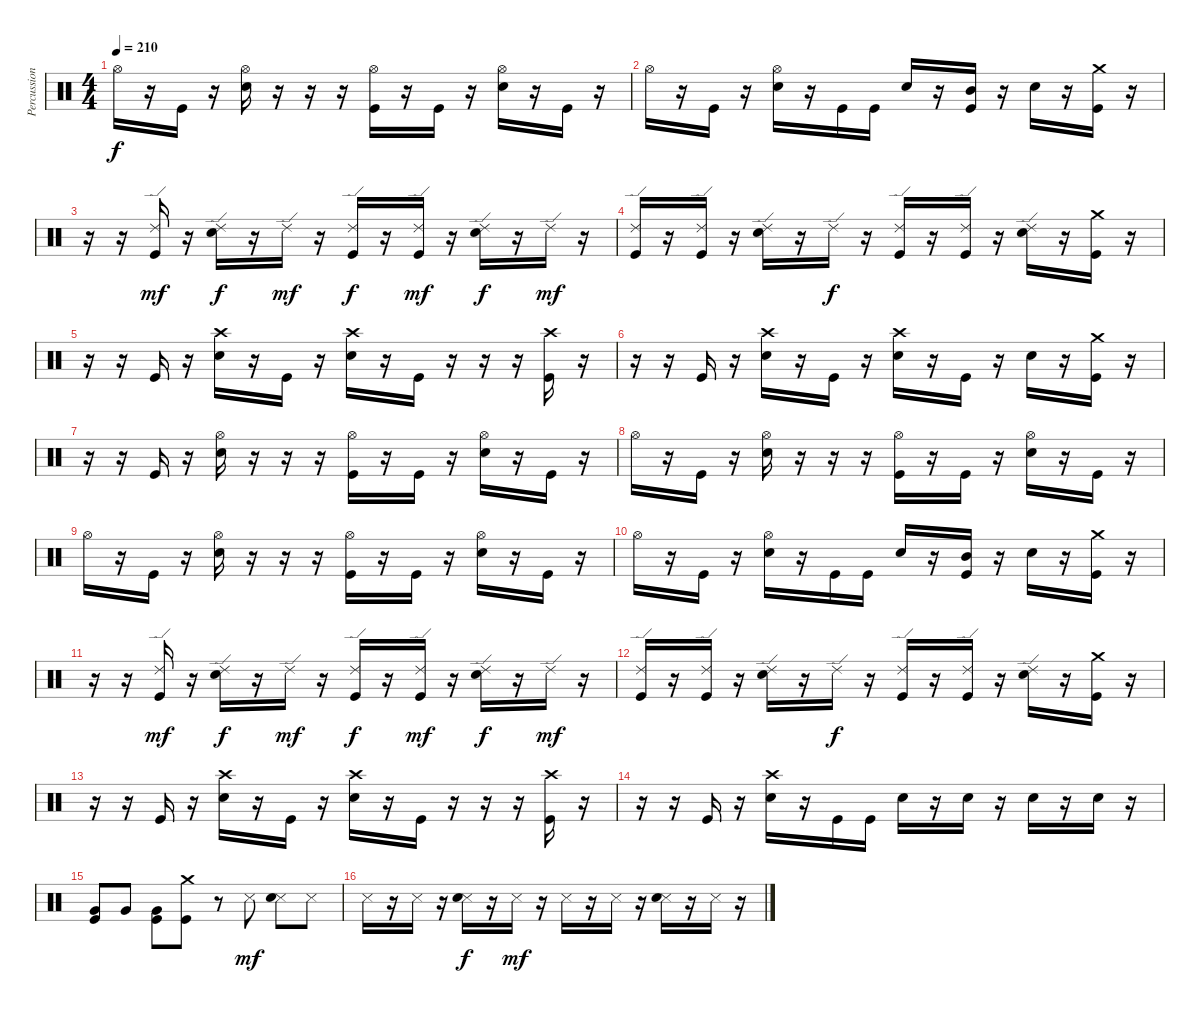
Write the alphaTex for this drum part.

\track ("Percussion" "Percussion") {instrument percussion}
\staff {score}
\articulation defaults
\ts (4 4)
\tempo 210
\clef neutral
\ks c "Hi-Hat (open)".16{dy f}
r.16 "Kick (hit)".16 r.16 ("Hi-Hat (open)" "Electric Snare (hit)").16 r.16 r.16 r.16 ("Kick (hit)" "Hi-Hat (open)").16 r.16 "Kick (hit)".16 r.16 ("Electric Snare (hit)" "Hi-Hat (open)").16 r.16 "Kick (hit)".16 r.16 |
"Hi-Hat (open)".16 r.16 "Kick (hit)".16 r.16 ("Hi-Hat (open)" "Electric Snare (hit)").16 r.16 "Kick (hit)".16 "Kick (hit)".16 "Electric Snare (hit)".16 r.16 ("Kick (hit)" "Mid Tom (hit)").16 r.16 "Electric Snare (hit)".16 r.16 ("Kick (hit)" "Crash medium (hit)").16 r.16 |
r.16 r.16 ("Ride (edge) 2" "Kick (hit)").16{dy mf} r.16 ("Ride (edge) 2" "Electric Snare (hit)").16{dy f} r.16 "Ride (edge) 2".16{dy mf} r.16 ("Ride (edge) 2" "Kick (hit)").16{dy f} r.16 ("Ride (edge) 2" "Kick (hit)").16{dy mf} r.16 ("Ride (edge) 2" "Electric Snare (hit)").16{dy f} r.16 "Ride (edge) 2".16{dy mf} r.16 |
("Ride (edge) 2" "Kick (hit)").16 r.16 ("Ride (edge) 2" "Kick (hit)").16 r.16 ("Ride (edge) 2" "Electric Snare (hit)").16 r.16 "Ride (edge) 2".16{dy f} r.16 ("Ride (edge) 2" "Kick (hit)").16 r.16 ("Ride (edge) 2" "Kick (hit)").16 r.16 ("Ride (edge) 2" "Electric Snare (hit)").16 r.16 ("Crash medium (hit)" "Kick (hit)").16 r.16 |
r.16 r.16 "Kick (hit)".16 r.16 ("Crash high (hit)" "Electric Snare (hit)").16 r.16 "Kick (hit)".16 r.16 ("Crash high (hit)" "Electric Snare (hit)").16 r.16 "Kick (hit)".16 r.16 r.16 r.16 ("Crash high (hit)" "Kick (hit)").16 r.16 |
r.16 r.16 "Kick (hit)".16 r.16 ("Crash high (hit)" "Electric Snare (hit)").16 r.16 "Kick (hit)".16 r.16 ("Crash high (hit)" "Electric Snare (hit)").16 r.16 "Kick (hit)".16 r.16 "Electric Snare (hit)".16 r.16 ("Crash medium (hit)" "Kick (hit)").16 r.16 |
r.16 r.16 "Kick (hit)".16 r.16 ("Hi-Hat (open)" "Electric Snare (hit)").16 r.16 r.16 r.16 ("Kick (hit)" "Hi-Hat (open)").16 r.16 "Kick (hit)".16 r.16 ("Electric Snare (hit)" "Hi-Hat (open)").16 r.16 "Kick (hit)".16 r.16 |
"Hi-Hat (open)".16 r.16 "Kick (hit)".16 r.16 ("Hi-Hat (open)" "Electric Snare (hit)").16 r.16 r.16 r.16 ("Kick (hit)" "Hi-Hat (open)").16 r.16 "Kick (hit)".16 r.16 ("Electric Snare (hit)" "Hi-Hat (open)").16 r.16 "Kick (hit)".16 r.16 |
"Hi-Hat (open)".16 r.16 "Kick (hit)".16 r.16 ("Hi-Hat (open)" "Electric Snare (hit)").16 r.16 r.16 r.16 ("Kick (hit)" "Hi-Hat (open)").16 r.16 "Kick (hit)".16 r.16 ("Electric Snare (hit)" "Hi-Hat (open)").16 r.16 "Kick (hit)".16 r.16 |
"Hi-Hat (open)".16 r.16 "Kick (hit)".16 r.16 ("Hi-Hat (open)" "Electric Snare (hit)").16 r.16 "Kick (hit)".16 "Kick (hit)".16 "Electric Snare (hit)".16 r.16 ("Kick (hit)" "Mid Tom (hit)").16 r.16 "Electric Snare (hit)".16 r.16 ("Kick (hit)" "Crash medium (hit)").16 r.16 |
r.16 r.16 ("Ride (edge) 2" "Kick (hit)").16{dy mf} r.16 ("Ride (edge) 2" "Electric Snare (hit)").16{dy f} r.16 "Ride (edge) 2".16{dy mf} r.16 ("Ride (edge) 2" "Kick (hit)").16{dy f} r.16 ("Ride (edge) 2" "Kick (hit)").16{dy mf} r.16 ("Ride (edge) 2" "Electric Snare (hit)").16{dy f} r.16 "Ride (edge) 2".16{dy mf} r.16 |
("Ride (edge) 2" "Kick (hit)").16 r.16 ("Ride (edge) 2" "Kick (hit)").16 r.16 ("Ride (edge) 2" "Electric Snare (hit)").16 r.16 "Ride (edge) 2".16{dy f} r.16 ("Ride (edge) 2" "Kick (hit)").16 r.16 ("Ride (edge) 2" "Kick (hit)").16 r.16 ("Ride (edge) 2" "Electric Snare (hit)").16 r.16 ("Crash medium (hit)" "Kick (hit)").16 r.16 |
r.16 r.16 "Kick (hit)".16 r.16 ("Crash high (hit)" "Electric Snare (hit)").16 r.16 "Kick (hit)".16 r.16 ("Crash high (hit)" "Electric Snare (hit)").16 r.16 "Kick (hit)".16 r.16 r.16 r.16 ("Crash high (hit)" "Kick (hit)").16 r.16 |
r.16 r.16 "Kick (hit)".16 r.16 ("Crash high (hit)" "Electric Snare (hit)").16 r.16 "Kick (hit)".16 "Kick (hit)".16 "Electric Snare (hit)".16 r.16 "Electric Snare (hit)".16 r.16 "Electric Snare (hit)".16 r.16 "Electric Snare (hit)".16 r.16 |
("Kick (hit)" "Very Low Tom (hit)").8 "Very Low Tom (hit)".8 ("Kick (hit)" "Very Low Tom (hit)").8 ("Crash medium (hit)" "Kick (hit)").8 r.8 "Metronome (hit)".8{dy mf} ("Metronome (hit)" "Electric Snare (hit)").8 "Metronome (hit)".8 |
"Metronome (hit)".16 r.16 "Metronome (hit)".16 r.16 ("Metronome (hit)" "Electric Snare (hit)").16{dy f} r.16 "Metronome (hit)".16{dy mf} r.16 "Metronome (hit)".16 r.16 "Metronome (hit)".16 r.16 ("Metronome (hit)" "Electric Snare (hit)").16 r.16 "Metronome (hit)".16 r.16
